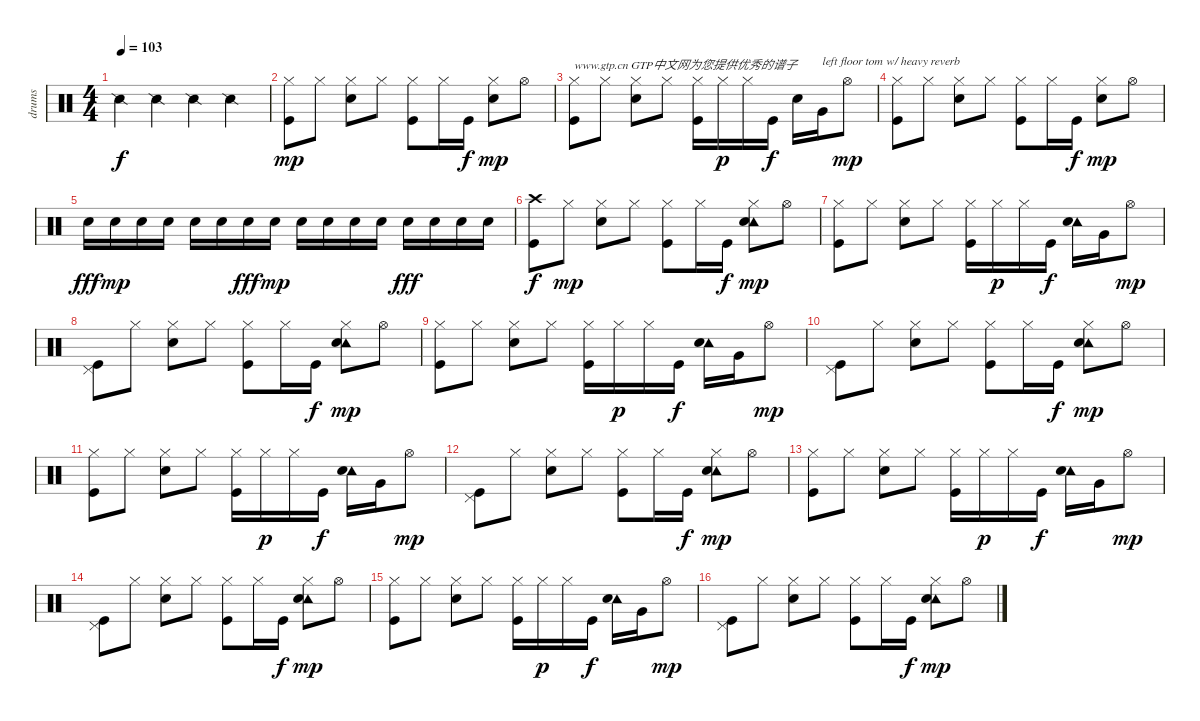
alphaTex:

\track ("drums" "drums") {instrument percussion}
\staff {score}
\articulation defaults
\ts (4 4)
\tempo 103
\clef neutral
\ks c "Snare (side stick) 2".4{dy f} "Snare (side stick) 2".4 "Snare (side stick) 2".4 "Snare (side stick) 2".4
|
("Hi-Hat (closed)" "Kick (hit)").8{dy mp} "Hi-Hat (closed)".8 ("Hi-Hat (closed)" "Electric Snare (hit)").8 "Hi-Hat (closed)".8 ("Hi-Hat (closed)" "Kick (hit)").8 "Hi-Hat (closed)".16 "Kick (hit)".16{dy f} ("Hi-Hat (closed)" "Electric Snare (hit)").8{dy mp} "Hi-Hat (open)".8 |
("Hi-Hat (closed)" "Kick (hit)").8{txt "www.gtp.cn GTP中文网为您提供优秀的谱子"} "Hi-Hat (closed)".8 ("Hi-Hat (closed)" "Electric Snare (hit)").8 "Hi-Hat (closed)".8 ("Hi-Hat (closed)" "Kick (hit)").16 "Hi-Hat (closed)".16{dy p} "Hi-Hat (closed)".16 "Kick (hit)".16{dy f} "Electric Snare (hit)".16 "Very Low Tom (hit)".16{txt "left floor tom w/ heavy reverb"} "Hi-Hat (open)".8{dy mp} |
("Hi-Hat (closed)" "Kick (hit)").8 "Hi-Hat (closed)".8 ("Hi-Hat (closed)" "Electric Snare (hit)").8 "Hi-Hat (closed)".8 ("Hi-Hat (closed)" "Kick (hit)").8 "Hi-Hat (closed)".16 "Kick (hit)".16{dy f} ("Hi-Hat (closed)" "Electric Snare (hit)").8{dy mp} "Hi-Hat (open)".8 |
"Electric Snare (hit)".16{dy fff} "Electric Snare (hit)".16{dy mp} "Electric Snare (hit)".16 "Electric Snare (hit)".16 "Electric Snare (hit)".16 "Electric Snare (hit)".16 "Electric Snare (hit)".16{dy fff} "Electric Snare (hit)".16{dy mp} "Electric Snare (hit)".16 "Electric Snare (hit)".16 "Electric Snare (hit)".16 "Electric Snare (hit)".16 "Electric Snare (hit)".16{dy fff} "Electric Snare (hit)".16 "Electric Snare (hit)".16 "Electric Snare (hit)".16 |
("Crash high (hit)" "Kick (hit)").8{dy f} "Hi-Hat (closed)".8{dy mp} ("Hi-Hat (closed)" "Electric Snare (hit)").8 "Hi-Hat (closed)".8 ("Hi-Hat (closed)" "Kick (hit)").8 "Hi-Hat (closed)".16 "Kick (hit)".16{dy f} ("Tambourine (hit)" "Hi-Hat (closed)" "Electric Snare (hit)").8{dy mp} "Hi-Hat (open)".8 |
("Hi-Hat (closed)" "Kick (hit)").8 "Hi-Hat (closed)".8 ("Hi-Hat (closed)" "Electric Snare (hit)").8 "Hi-Hat (closed)".8 ("Hi-Hat (closed)" "Kick (hit)").16 "Hi-Hat (closed)".16{dy p} "Hi-Hat (closed)".16 "Kick (hit)".16{dy f} ("Tambourine (hit)" "Electric Snare (hit)").16 "Very Low Tom (hit)".16 "Hi-Hat (open)".8{dy mp} |
("Pedal Hi-Hat (hit)" "Kick (hit)").8 "Hi-Hat (closed)".8 ("Hi-Hat (closed)" "Electric Snare (hit)").8 "Hi-Hat (closed)".8 ("Hi-Hat (closed)" "Kick (hit)").8 "Hi-Hat (closed)".16 "Kick (hit)".16{dy f} ("Tambourine (hit)" "Hi-Hat (closed)" "Electric Snare (hit)").8{dy mp} "Hi-Hat (open)".8 |
("Hi-Hat (closed)" "Kick (hit)").8 "Hi-Hat (closed)".8 ("Hi-Hat (closed)" "Electric Snare (hit)").8 "Hi-Hat (closed)".8 ("Hi-Hat (closed)" "Kick (hit)").16 "Hi-Hat (closed)".16{dy p} "Hi-Hat (closed)".16 "Kick (hit)".16{dy f} ("Tambourine (hit)" "Electric Snare (hit)").16 "Very Low Tom (hit)".16 "Hi-Hat (open)".8{dy mp} |
("Pedal Hi-Hat (hit)" "Kick (hit)").8 "Hi-Hat (closed)".8 ("Hi-Hat (closed)" "Electric Snare (hit)").8 "Hi-Hat (closed)".8 ("Hi-Hat (closed)" "Kick (hit)").8 "Hi-Hat (closed)".16 "Kick (hit)".16{dy f} ("Tambourine (hit)" "Hi-Hat (closed)" "Electric Snare (hit)").8{dy mp} "Hi-Hat (open)".8 |
("Hi-Hat (closed)" "Kick (hit)").8 "Hi-Hat (closed)".8 ("Hi-Hat (closed)" "Electric Snare (hit)").8 "Hi-Hat (closed)".8 ("Hi-Hat (closed)" "Kick (hit)").16 "Hi-Hat (closed)".16{dy p} "Hi-Hat (closed)".16 "Kick (hit)".16{dy f} ("Tambourine (hit)" "Electric Snare (hit)").16 "Very Low Tom (hit)".16 "Hi-Hat (open)".8{dy mp} |
("Pedal Hi-Hat (hit)" "Kick (hit)").8 "Hi-Hat (closed)".8 ("Hi-Hat (closed)" "Electric Snare (hit)").8 "Hi-Hat (closed)".8 ("Hi-Hat (closed)" "Kick (hit)").8 "Hi-Hat (closed)".16 "Kick (hit)".16{dy f} ("Tambourine (hit)" "Hi-Hat (closed)" "Electric Snare (hit)").8{dy mp} "Hi-Hat (open)".8 |
("Hi-Hat (closed)" "Kick (hit)").8 "Hi-Hat (closed)".8 ("Hi-Hat (closed)" "Electric Snare (hit)").8 "Hi-Hat (closed)".8 ("Hi-Hat (closed)" "Kick (hit)").16 "Hi-Hat (closed)".16{dy p} "Hi-Hat (closed)".16 "Kick (hit)".16{dy f} ("Tambourine (hit)" "Electric Snare (hit)").16 "Very Low Tom (hit)".16 "Hi-Hat (open)".8{dy mp} |
("Pedal Hi-Hat (hit)" "Kick (hit)").8 "Hi-Hat (closed)".8 ("Hi-Hat (closed)" "Electric Snare (hit)").8 "Hi-Hat (closed)".8 ("Hi-Hat (closed)" "Kick (hit)").8 "Hi-Hat (closed)".16 "Kick (hit)".16{dy f} ("Tambourine (hit)" "Hi-Hat (closed)" "Electric Snare (hit)").8{dy mp} "Hi-Hat (open)".8 |
("Hi-Hat (closed)" "Kick (hit)").8 "Hi-Hat (closed)".8 ("Hi-Hat (closed)" "Electric Snare (hit)").8 "Hi-Hat (closed)".8 ("Hi-Hat (closed)" "Kick (hit)").16 "Hi-Hat (closed)".16{dy p} "Hi-Hat (closed)".16 "Kick (hit)".16{dy f} ("Tambourine (hit)" "Electric Snare (hit)").16 "Very Low Tom (hit)".16 "Hi-Hat (open)".8{dy mp} |
("Pedal Hi-Hat (hit)" "Kick (hit)").8 "Hi-Hat (closed)".8 ("Hi-Hat (closed)" "Electric Snare (hit)").8 "Hi-Hat (closed)".8 ("Hi-Hat (closed)" "Kick (hit)").8 "Hi-Hat (closed)".16 "Kick (hit)".16{dy f} ("Tambourine (hit)" "Hi-Hat (closed)" "Electric Snare (hit)").8{dy mp} "Hi-Hat (open)".8
